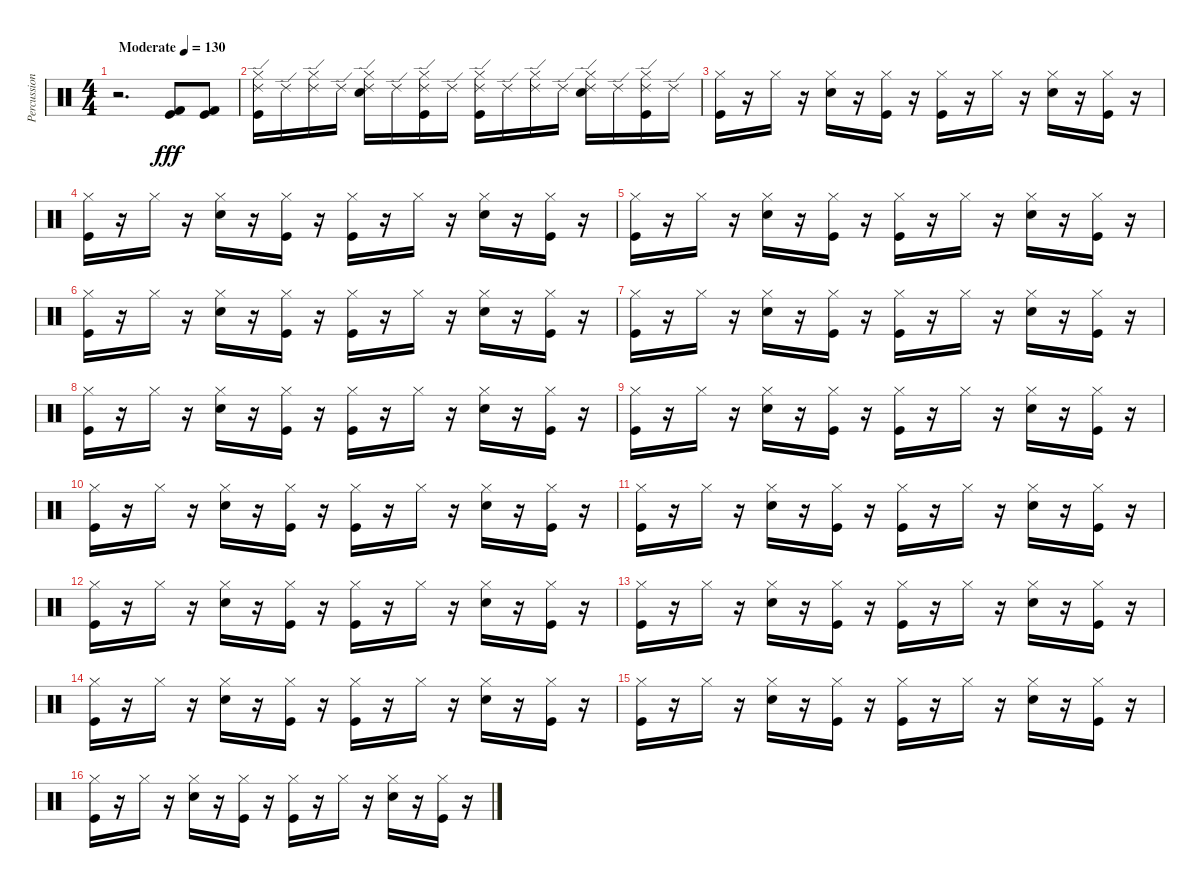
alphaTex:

\track ("Percussion" "Percussion") {instrument percussion}
\staff {score}
\articulation defaults
\ts (4 4)
\tempo (130 "Moderate")
\clef neutral
\ks c
r.2{d dy fff} ("Kick (hit)" "Kick (hit) 2").8 ("Kick (hit) 2" "Kick (hit)").8 |
("Kick (hit)" "Hi-Hat (closed)" "Ride (edge) 2").16 "Ride (edge) 2".16 ("Hi-Hat (closed)" "Ride (edge) 2").16 "Ride (edge) 2".16 ("Hi-Hat (closed)" "Snare (hit) 2" "Ride (edge) 2").16 "Ride (edge) 2".16 ("Kick (hit)" "Hi-Hat (closed)" "Ride (edge) 2").16 "Ride (edge) 2".16 ("Kick (hit)" "Hi-Hat (closed)" "Ride (edge) 2").16 "Ride (edge) 2".16 ("Hi-Hat (closed)" "Ride (edge) 2").16 "Ride (edge) 2".16 ("Hi-Hat (closed)" "Snare (hit) 2" "Ride (edge) 2").16 "Ride (edge) 2".16 ("Kick (hit)" "Hi-Hat (closed)" "Ride (edge) 2").16 "Ride (edge) 2".16 |
("Kick (hit)" "Hi-Hat (closed)").16 r.16 "Hi-Hat (closed)".16 r.16 ("Hi-Hat (closed)" "Snare (hit) 2").16 r.16 ("Kick (hit)" "Hi-Hat (closed)").16 r.16 ("Kick (hit)" "Hi-Hat (closed)").16 r.16 "Hi-Hat (closed)".16 r.16 ("Hi-Hat (closed)" "Snare (hit) 2").16 r.16 ("Kick (hit)" "Hi-Hat (closed)").16 r.16 |
("Kick (hit)" "Hi-Hat (closed)").16 r.16 "Hi-Hat (closed)".16 r.16 ("Hi-Hat (closed)" "Snare (hit) 2").16 r.16 ("Kick (hit)" "Hi-Hat (closed)").16 r.16 ("Kick (hit)" "Hi-Hat (closed)").16 r.16 "Hi-Hat (closed)".16 r.16 ("Hi-Hat (closed)" "Snare (hit) 2").16 r.16 ("Kick (hit)" "Hi-Hat (closed)").16 r.16 |
("Kick (hit)" "Hi-Hat (closed)").16 r.16 "Hi-Hat (closed)".16 r.16 ("Hi-Hat (closed)" "Snare (hit) 2").16 r.16 ("Kick (hit)" "Hi-Hat (closed)").16 r.16 ("Kick (hit)" "Hi-Hat (closed)").16 r.16 "Hi-Hat (closed)".16 r.16 ("Hi-Hat (closed)" "Snare (hit) 2").16 r.16 ("Kick (hit)" "Hi-Hat (closed)").16 r.16 |
("Kick (hit)" "Hi-Hat (closed)").16 r.16 "Hi-Hat (closed)".16 r.16 ("Hi-Hat (closed)" "Snare (hit) 2").16 r.16 ("Kick (hit)" "Hi-Hat (closed)").16 r.16 ("Kick (hit)" "Hi-Hat (closed)").16 r.16 "Hi-Hat (closed)".16 r.16 ("Hi-Hat (closed)" "Snare (hit) 2").16 r.16 ("Kick (hit)" "Hi-Hat (closed)").16 r.16 |
("Kick (hit)" "Hi-Hat (closed)").16 r.16 "Hi-Hat (closed)".16 r.16 ("Hi-Hat (closed)" "Snare (hit) 2").16 r.16 ("Kick (hit)" "Hi-Hat (closed)").16 r.16 ("Kick (hit)" "Hi-Hat (closed)").16 r.16 "Hi-Hat (closed)".16 r.16 ("Hi-Hat (closed)" "Snare (hit) 2").16 r.16 ("Kick (hit)" "Hi-Hat (closed)").16 r.16 |
("Kick (hit)" "Hi-Hat (closed)").16 r.16 "Hi-Hat (closed)".16 r.16 ("Hi-Hat (closed)" "Snare (hit) 2").16 r.16 ("Kick (hit)" "Hi-Hat (closed)").16 r.16 ("Kick (hit)" "Hi-Hat (closed)").16 r.16 "Hi-Hat (closed)".16 r.16 ("Hi-Hat (closed)" "Snare (hit) 2").16 r.16 ("Kick (hit)" "Hi-Hat (closed)").16 r.16 |
("Kick (hit)" "Hi-Hat (closed)").16 r.16 "Hi-Hat (closed)".16 r.16 ("Hi-Hat (closed)" "Snare (hit) 2").16 r.16 ("Kick (hit)" "Hi-Hat (closed)").16 r.16 ("Kick (hit)" "Hi-Hat (closed)").16 r.16 "Hi-Hat (closed)".16 r.16 ("Hi-Hat (closed)" "Snare (hit) 2").16 r.16 ("Kick (hit)" "Hi-Hat (closed)").16 r.16 |
("Kick (hit)" "Hi-Hat (closed)").16 r.16 "Hi-Hat (closed)".16 r.16 ("Hi-Hat (closed)" "Snare (hit) 2").16 r.16 ("Kick (hit)" "Hi-Hat (closed)").16 r.16 ("Kick (hit)" "Hi-Hat (closed)").16 r.16 "Hi-Hat (closed)".16 r.16 ("Hi-Hat (closed)" "Snare (hit) 2").16 r.16 ("Kick (hit)" "Hi-Hat (closed)").16 r.16 |
("Kick (hit)" "Hi-Hat (closed)").16 r.16 "Hi-Hat (closed)".16 r.16 ("Hi-Hat (closed)" "Snare (hit) 2").16 r.16 ("Kick (hit)" "Hi-Hat (closed)").16 r.16 ("Kick (hit)" "Hi-Hat (closed)").16 r.16 "Hi-Hat (closed)".16 r.16 ("Hi-Hat (closed)" "Snare (hit) 2").16 r.16 ("Kick (hit)" "Hi-Hat (closed)").16 r.16 |
("Kick (hit)" "Hi-Hat (closed)").16 r.16 "Hi-Hat (closed)".16 r.16 ("Hi-Hat (closed)" "Snare (hit) 2").16 r.16 ("Kick (hit)" "Hi-Hat (closed)").16 r.16 ("Kick (hit)" "Hi-Hat (closed)").16 r.16 "Hi-Hat (closed)".16 r.16 ("Hi-Hat (closed)" "Snare (hit) 2").16 r.16 ("Kick (hit)" "Hi-Hat (closed)").16 r.16 |
("Kick (hit)" "Hi-Hat (closed)").16 r.16 "Hi-Hat (closed)".16 r.16 ("Hi-Hat (closed)" "Snare (hit) 2").16 r.16 ("Kick (hit)" "Hi-Hat (closed)").16 r.16 ("Kick (hit)" "Hi-Hat (closed)").16 r.16 "Hi-Hat (closed)".16 r.16 ("Hi-Hat (closed)" "Snare (hit) 2").16 r.16 ("Kick (hit)" "Hi-Hat (closed)").16 r.16 |
("Kick (hit)" "Hi-Hat (closed)").16 r.16 "Hi-Hat (closed)".16 r.16 ("Hi-Hat (closed)" "Snare (hit) 2").16 r.16 ("Kick (hit)" "Hi-Hat (closed)").16 r.16 ("Kick (hit)" "Hi-Hat (closed)").16 r.16 "Hi-Hat (closed)".16 r.16 ("Hi-Hat (closed)" "Snare (hit) 2").16 r.16 ("Kick (hit)" "Hi-Hat (closed)").16 r.16 |
("Kick (hit)" "Hi-Hat (closed)").16 r.16 "Hi-Hat (closed)".16 r.16 ("Hi-Hat (closed)" "Snare (hit) 2").16 r.16 ("Kick (hit)" "Hi-Hat (closed)").16 r.16 ("Kick (hit)" "Hi-Hat (closed)").16 r.16 "Hi-Hat (closed)".16 r.16 ("Hi-Hat (closed)" "Snare (hit) 2").16 r.16 ("Kick (hit)" "Hi-Hat (closed)").16 r.16 |
("Kick (hit)" "Hi-Hat (closed)").16 r.16 "Hi-Hat (closed)".16 r.16 ("Hi-Hat (closed)" "Snare (hit) 2").16 r.16 ("Kick (hit)" "Hi-Hat (closed)").16 r.16 ("Kick (hit)" "Hi-Hat (closed)").16 r.16 "Hi-Hat (closed)".16 r.16 ("Hi-Hat (closed)" "Snare (hit) 2").16 r.16 ("Kick (hit)" "Hi-Hat (closed)").16 r.16
